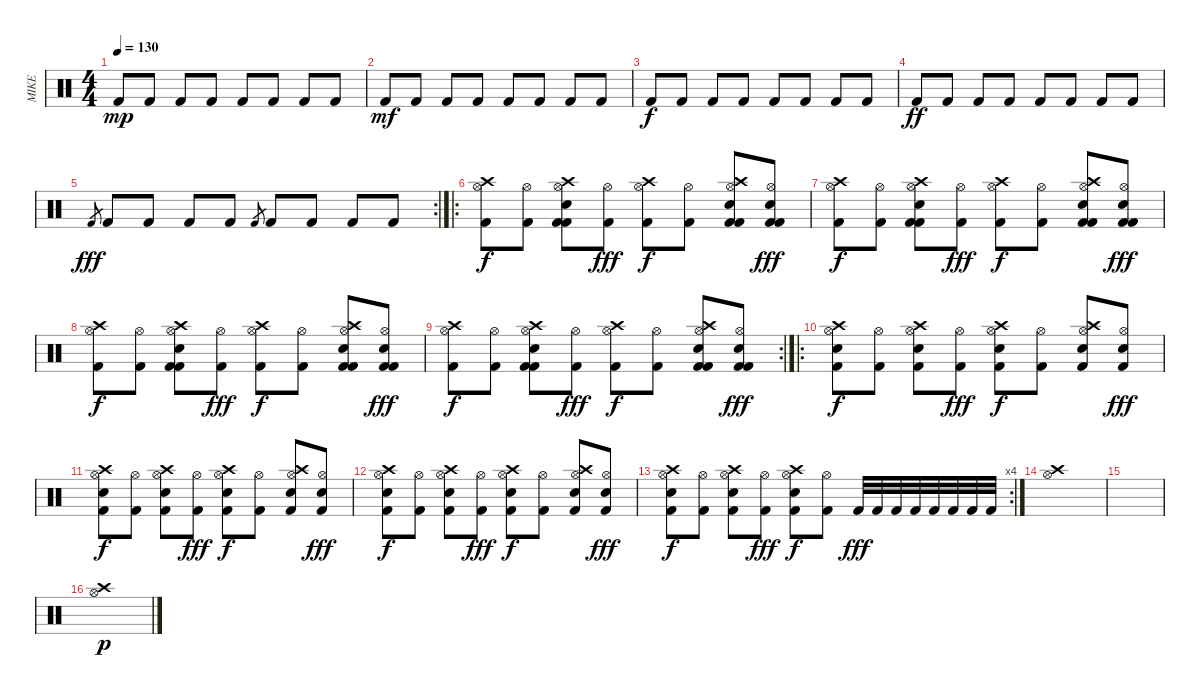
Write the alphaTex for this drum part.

\track ("MIKE" "MIKE") {instrument percussion}
\staff {score}
\articulation defaults
\ts (4 4)
\tempo 130
\clef neutral
\ks c "Kick (hit) 2".8{dy mp} "Kick (hit) 2".8 "Kick (hit) 2".8 "Kick (hit) 2".8 "Kick (hit) 2".8 "Kick (hit) 2".8 "Kick (hit) 2".8 "Kick (hit) 2".8
|
"Kick (hit) 2".8{dy mf} "Kick (hit) 2".8 "Kick (hit) 2".8 "Kick (hit) 2".8 "Kick (hit) 2".8 "Kick (hit) 2".8 "Kick (hit) 2".8 "Kick (hit) 2".8 |
"Kick (hit) 2".8{dy f} "Kick (hit) 2".8 "Kick (hit) 2".8 "Kick (hit) 2".8 "Kick (hit) 2".8 "Kick (hit) 2".8 "Kick (hit) 2".8 "Kick (hit) 2".8 |
"Kick (hit) 2".8{dy ff} "Kick (hit) 2".8 "Kick (hit) 2".8 "Kick (hit) 2".8 "Kick (hit) 2".8 "Kick (hit) 2".8 "Kick (hit) 2".8 "Kick (hit) 2".8 |
\rc 2 "Kick (hit) 2".8{gr dy fff} "Kick (hit) 2".8 "Kick (hit) 2".8 "Kick (hit) 2".8 "Kick (hit) 2".8 "Kick (hit) 2".8{gr} "Kick (hit) 2".8 "Kick (hit) 2".8 "Kick (hit) 2".8 "Kick (hit) 2".8
|
\ro
("Hi-Hat (open)" "Crash high (hit)" "Kick (hit) 2").8{dy f} ("Hi-Hat (open)" "Kick (hit) 2").8 ("Hi-Hat (open)" "Crash high (hit)" "Kick (hit) 2" "Electric Snare (hit)" "Kick (hit) 2").8 ("Hi-Hat (open)" "Kick (hit) 2").8{dy fff} ("Hi-Hat (open)" "Crash high (hit)" "Kick (hit) 2").8{dy f} ("Hi-Hat (open)" "Kick (hit) 2").8 ("Hi-Hat (open)" "Crash high (hit)" "Kick (hit) 2" "Electric Snare (hit)" "Kick (hit) 2").8 ("Hi-Hat (open)" "Kick (hit) 2" "Electric Snare (hit)" "Kick (hit) 2").8{dy fff} |
("Hi-Hat (open)" "Crash high (hit)" "Kick (hit) 2").8{dy f} ("Hi-Hat (open)" "Kick (hit) 2").8 ("Hi-Hat (open)" "Crash high (hit)" "Kick (hit) 2" "Electric Snare (hit)" "Kick (hit) 2").8 ("Hi-Hat (open)" "Kick (hit) 2").8{dy fff} ("Hi-Hat (open)" "Crash high (hit)" "Kick (hit) 2").8{dy f} ("Hi-Hat (open)" "Kick (hit) 2").8 ("Hi-Hat (open)" "Crash high (hit)" "Kick (hit) 2" "Electric Snare (hit)" "Kick (hit) 2").8 ("Hi-Hat (open)" "Kick (hit) 2" "Electric Snare (hit)" "Kick (hit) 2").8{dy fff} |
("Hi-Hat (open)" "Crash high (hit)" "Kick (hit) 2").8{dy f} ("Hi-Hat (open)" "Kick (hit) 2").8 ("Hi-Hat (open)" "Crash high (hit)" "Kick (hit) 2" "Electric Snare (hit)" "Kick (hit) 2").8 ("Hi-Hat (open)" "Kick (hit) 2").8{dy fff} ("Hi-Hat (open)" "Crash high (hit)" "Kick (hit) 2").8{dy f} ("Hi-Hat (open)" "Kick (hit) 2").8 ("Hi-Hat (open)" "Crash high (hit)" "Kick (hit) 2" "Electric Snare (hit)" "Kick (hit) 2").8 ("Hi-Hat (open)" "Kick (hit) 2" "Electric Snare (hit)" "Kick (hit) 2").8{dy fff} |
\rc 2
("Hi-Hat (open)" "Crash high (hit)" "Kick (hit) 2").8{dy f} ("Hi-Hat (open)" "Kick (hit) 2").8 ("Hi-Hat (open)" "Crash high (hit)" "Kick (hit) 2" "Electric Snare (hit)" "Kick (hit) 2").8 ("Hi-Hat (open)" "Kick (hit) 2").8{dy fff} ("Hi-Hat (open)" "Crash high (hit)" "Kick (hit) 2").8{dy f} ("Hi-Hat (open)" "Kick (hit) 2").8 ("Hi-Hat (open)" "Crash high (hit)" "Kick (hit) 2" "Electric Snare (hit)" "Kick (hit) 2").8 ("Hi-Hat (open)" "Kick (hit) 2" "Electric Snare (hit)" "Kick (hit) 2").8{dy fff} |
\ro
("Hi-Hat (open)" "Crash high (hit)" "Electric Snare (hit)" "Kick (hit) 2").8{dy f} ("Hi-Hat (open)" "Kick (hit) 2").8 ("Hi-Hat (open)" "Crash high (hit)" "Electric Snare (hit)" "Kick (hit) 2").8 ("Hi-Hat (open)" "Kick (hit) 2").8{dy fff} ("Hi-Hat (open)" "Crash high (hit)" "Electric Snare (hit)" "Kick (hit) 2").8{dy f} ("Hi-Hat (open)" "Kick (hit) 2").8 ("Hi-Hat (open)" "Crash high (hit)" "Electric Snare (hit)" "Kick (hit) 2").8 ("Hi-Hat (open)" "Electric Snare (hit)" "Kick (hit) 2").8{dy fff} |
("Hi-Hat (open)" "Crash high (hit)" "Electric Snare (hit)" "Kick (hit) 2").8{dy f} ("Hi-Hat (open)" "Kick (hit) 2").8 ("Hi-Hat (open)" "Crash high (hit)" "Electric Snare (hit)" "Kick (hit) 2").8 ("Hi-Hat (open)" "Kick (hit) 2").8{dy fff} ("Hi-Hat (open)" "Crash high (hit)" "Electric Snare (hit)" "Kick (hit) 2").8{dy f} ("Hi-Hat (open)" "Kick (hit) 2").8 ("Hi-Hat (open)" "Crash high (hit)" "Electric Snare (hit)" "Kick (hit) 2").8 ("Hi-Hat (open)" "Electric Snare (hit)" "Kick (hit) 2").8{dy fff} |
("Hi-Hat (open)" "Crash high (hit)" "Electric Snare (hit)" "Kick (hit) 2").8{dy f} ("Hi-Hat (open)" "Kick (hit) 2").8 ("Hi-Hat (open)" "Crash high (hit)" "Electric Snare (hit)" "Kick (hit) 2").8 ("Hi-Hat (open)" "Kick (hit) 2").8{dy fff} ("Hi-Hat (open)" "Crash high (hit)" "Electric Snare (hit)" "Kick (hit) 2").8{dy f} ("Hi-Hat (open)" "Kick (hit) 2").8 ("Hi-Hat (open)" "Crash high (hit)" "Electric Snare (hit)" "Kick (hit) 2").8 ("Hi-Hat (open)" "Electric Snare (hit)" "Kick (hit) 2").8{dy fff} |
\rc 4
("Hi-Hat (open)" "Crash high (hit)" "Electric Snare (hit)" "Kick (hit) 2").8{dy f} ("Hi-Hat (open)" "Kick (hit) 2").8 ("Hi-Hat (open)" "Crash high (hit)" "Electric Snare (hit)" "Kick (hit) 2").8 ("Hi-Hat (open)" "Kick (hit) 2").8{dy fff} ("Hi-Hat (open)" "Crash high (hit)" "Electric Snare (hit)" "Kick (hit) 2").8{dy f} ("Hi-Hat (open)" "Kick (hit) 2").8 "Kick (hit) 2".32{dy fff} "Kick (hit) 2".32 "Kick (hit) 2".32 "Kick (hit) 2".32 "Kick (hit) 2".32 "Kick (hit) 2".32 "Kick (hit) 2".32 "Kick (hit) 2".32 |
("Hi-Hat (open)" "Crash high (hit)").1 |
|
("Hi-Hat (open)" "Crash high (hit)").1{dy p}
